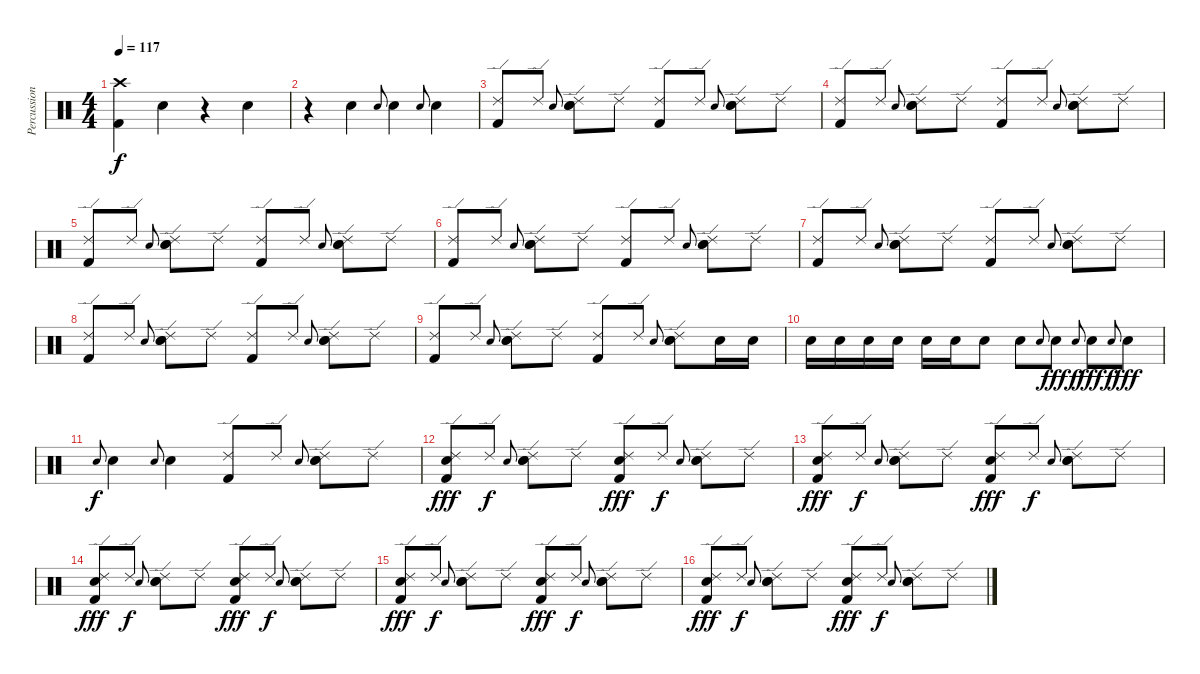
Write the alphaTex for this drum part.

\track ("Percussion" "Percussion") {instrument percussion}
\staff {score}
\articulation defaults
\ts (4 4)
\tempo 117
\clef neutral
\ks c
("Crash high (hit)" "Kick (hit) 2").4{dy f} "Hand Clap (hit)".4 r.4 "Hand Clap (hit)".4 |
r.4 "Hand Clap (hit)".4 "Electric Snare (hit)".8{gr onbeat} "Electric Snare (hit)".4 "Electric Snare (hit)".8{gr onbeat} "Electric Snare (hit)".4 |
("Ride (edge) 2" "Kick (hit) 2").8 "Ride (edge) 2".8 "Electric Snare (hit)".8{gr onbeat} ("Ride (edge) 2" "Electric Snare (hit)" "Electric Snare (hit)").8 "Ride (edge) 2".8 ("Ride (edge) 2" "Kick (hit) 2").8 "Ride (edge) 2".8 "Electric Snare (hit)".8{gr onbeat} ("Ride (edge) 2" "Electric Snare (hit)" "Electric Snare (hit)").8 "Ride (edge) 2".8 |
("Ride (edge) 2" "Kick (hit) 2").8 "Ride (edge) 2".8 "Electric Snare (hit)".8{gr onbeat} ("Ride (edge) 2" "Electric Snare (hit)" "Electric Snare (hit)").8 "Ride (edge) 2".8 ("Ride (edge) 2" "Kick (hit) 2").8 "Ride (edge) 2".8 "Electric Snare (hit)".8{gr onbeat} ("Ride (edge) 2" "Electric Snare (hit)" "Electric Snare (hit)").8 "Ride (edge) 2".8 |
("Ride (edge) 2" "Kick (hit) 2").8 "Ride (edge) 2".8 "Electric Snare (hit)".8{gr onbeat} ("Ride (edge) 2" "Electric Snare (hit)" "Electric Snare (hit)").8 "Ride (edge) 2".8 ("Ride (edge) 2" "Kick (hit) 2").8 "Ride (edge) 2".8 "Electric Snare (hit)".8{gr onbeat} ("Ride (edge) 2" "Electric Snare (hit)" "Electric Snare (hit)").8 "Ride (edge) 2".8 |
("Ride (edge) 2" "Kick (hit) 2").8 "Ride (edge) 2".8 "Electric Snare (hit)".8{gr onbeat} ("Ride (edge) 2" "Electric Snare (hit)" "Electric Snare (hit)").8 "Ride (edge) 2".8 ("Ride (edge) 2" "Kick (hit) 2").8 "Ride (edge) 2".8 "Electric Snare (hit)".8{gr onbeat} ("Ride (edge) 2" "Electric Snare (hit)" "Electric Snare (hit)").8 "Ride (edge) 2".8 |
("Ride (edge) 2" "Kick (hit) 2").8 "Ride (edge) 2".8 "Electric Snare (hit)".8{gr onbeat} ("Ride (edge) 2" "Electric Snare (hit)" "Electric Snare (hit)").8 "Ride (edge) 2".8 ("Ride (edge) 2" "Kick (hit) 2").8 "Ride (edge) 2".8 "Electric Snare (hit)".8{gr onbeat} ("Ride (edge) 2" "Electric Snare (hit)" "Electric Snare (hit)").8 "Ride (edge) 2".8 |
("Ride (edge) 2" "Kick (hit) 2").8 "Ride (edge) 2".8 "Electric Snare (hit)".8{gr onbeat} ("Ride (edge) 2" "Electric Snare (hit)" "Electric Snare (hit)").8 "Ride (edge) 2".8 ("Ride (edge) 2" "Kick (hit) 2").8 "Ride (edge) 2".8 "Electric Snare (hit)".8{gr onbeat} ("Ride (edge) 2" "Electric Snare (hit)" "Electric Snare (hit)").8 "Ride (edge) 2".8 |
("Ride (edge) 2" "Kick (hit) 2").8 "Ride (edge) 2".8 "Electric Snare (hit)".8{gr onbeat} ("Ride (edge) 2" "Electric Snare (hit)" "Electric Snare (hit)").8 "Ride (edge) 2".8 ("Ride (edge) 2" "Kick (hit) 2").8 "Ride (edge) 2".8 "Electric Snare (hit)".8{gr onbeat} ("Ride (edge) 2" "Electric Snare (hit)" "Electric Snare (hit)").8 "Electric Snare (hit)".16 "Electric Snare (hit)".16 |
"Electric Snare (hit)".16 "Electric Snare (hit)".16 "Electric Snare (hit)".16 "Electric Snare (hit)".16 "Electric Snare (hit)".16 "Electric Snare (hit)".16 "Electric Snare (hit)".8 "Electric Snare (hit)".8 "Electric Snare (hit)".8{gr onbeat} "Electric Snare (hit)".8{dy fff} "Electric Snare (hit)".8{gr onbeat dy f} "Electric Snare (hit)".8{dy fff} "Electric Snare (hit)".8{gr onbeat dy f} "Electric Snare (hit)".8{dy fff} |
"Electric Snare (hit)".8{gr onbeat dy f} "Electric Snare (hit)".4 "Electric Snare (hit)".8{gr onbeat} "Electric Snare (hit)".4 ("Ride (edge) 2" "Kick (hit) 2").8 "Ride (edge) 2".8 "Electric Snare (hit)".8{gr onbeat} ("Ride (edge) 2" "Electric Snare (hit)" "Electric Snare (hit)").8 "Ride (edge) 2".8 |
("Ride (edge) 2" "Electric Snare (hit)" "Kick (hit) 2").8{dy fff} "Ride (edge) 2".8{dy f} "Electric Snare (hit)".8{gr onbeat} ("Ride (edge) 2" "Electric Snare (hit)" "Electric Snare (hit)").8 "Ride (edge) 2".8 ("Ride (edge) 2" "Electric Snare (hit)" "Kick (hit) 2").8{dy fff} "Ride (edge) 2".8{dy f} "Electric Snare (hit)".8{gr onbeat} ("Ride (edge) 2" "Electric Snare (hit)" "Electric Snare (hit)").8 "Ride (edge) 2".8 |
("Ride (edge) 2" "Electric Snare (hit)" "Kick (hit) 2").8{dy fff} "Ride (edge) 2".8{dy f} "Electric Snare (hit)".8{gr onbeat} ("Ride (edge) 2" "Electric Snare (hit)" "Electric Snare (hit)").8 "Ride (edge) 2".8 ("Ride (edge) 2" "Electric Snare (hit)" "Kick (hit) 2").8{dy fff} "Ride (edge) 2".8{dy f} "Electric Snare (hit)".8{gr onbeat} ("Ride (edge) 2" "Electric Snare (hit)" "Electric Snare (hit)").8 "Ride (edge) 2".8 |
("Ride (edge) 2" "Electric Snare (hit)" "Kick (hit) 2").8{dy fff} "Ride (edge) 2".8{dy f} "Electric Snare (hit)".8{gr onbeat} ("Ride (edge) 2" "Electric Snare (hit)" "Electric Snare (hit)").8 "Ride (edge) 2".8 ("Ride (edge) 2" "Electric Snare (hit)" "Kick (hit) 2").8{dy fff} "Ride (edge) 2".8{dy f} "Electric Snare (hit)".8{gr onbeat} ("Ride (edge) 2" "Electric Snare (hit)" "Electric Snare (hit)").8 "Ride (edge) 2".8 |
("Ride (edge) 2" "Electric Snare (hit)" "Kick (hit) 2").8{dy fff} "Ride (edge) 2".8{dy f} "Electric Snare (hit)".8{gr onbeat} ("Ride (edge) 2" "Electric Snare (hit)" "Electric Snare (hit)").8 "Ride (edge) 2".8 ("Ride (edge) 2" "Electric Snare (hit)" "Kick (hit) 2").8{dy fff} "Ride (edge) 2".8{dy f} "Electric Snare (hit)".8{gr onbeat} ("Ride (edge) 2" "Electric Snare (hit)" "Electric Snare (hit)").8 "Ride (edge) 2".8 |
("Ride (edge) 2" "Electric Snare (hit)" "Kick (hit) 2").8{dy fff} "Ride (edge) 2".8{dy f} "Electric Snare (hit)".8{gr onbeat} ("Ride (edge) 2" "Electric Snare (hit)" "Electric Snare (hit)").8 "Ride (edge) 2".8 ("Ride (edge) 2" "Electric Snare (hit)" "Kick (hit) 2").8{dy fff} "Ride (edge) 2".8{dy f} "Electric Snare (hit)".8{gr onbeat} ("Ride (edge) 2" "Electric Snare (hit)" "Electric Snare (hit)").8 "Ride (edge) 2".8
